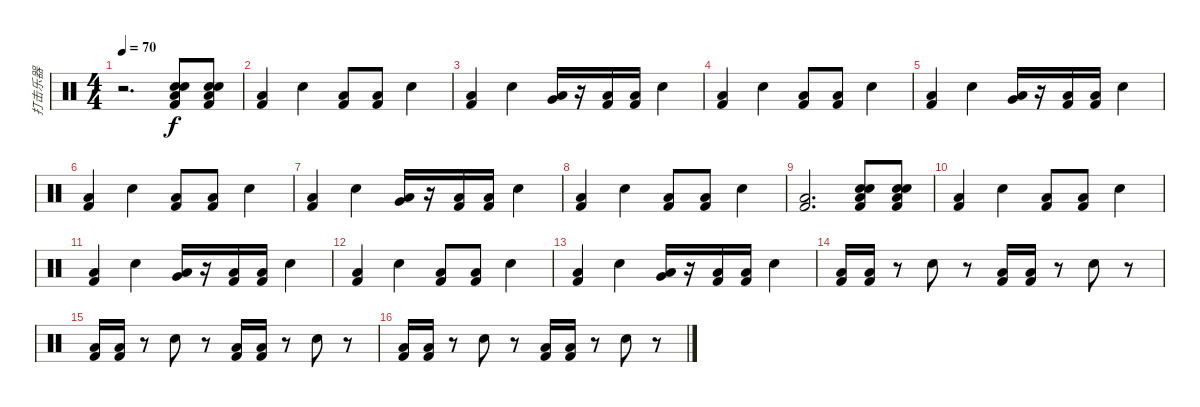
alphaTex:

\track ("打击乐器" "打击乐器") {instrument percussion bank 5}
\staff {score}
\articulation defaults
\ts (4 4)
\tempo 70
\clef neutral
\ks c
r.2{d dy f} ("Electric Snare (hit)" "Snare (hit) 2" "Low Floor Tom (hit)" "Kick (hit) 2").8 ("Electric Snare (hit)" "Snare (hit) 2" "Low Floor Tom (hit)" "Kick (hit) 2").8 |
("Low Floor Tom (hit)" "Kick (hit) 2").4 "Electric Snare (hit)".4 ("Low Floor Tom (hit)" "Kick (hit) 2").8 ("Low Floor Tom (hit)" "Kick (hit) 2").8 "Electric Snare (hit)".4 |
("Low Floor Tom (hit)" "Kick (hit) 2").4 "Electric Snare (hit)".4 ("Low Floor Tom (hit)" "Very Low Tom (hit)").16 r.16 ("Low Floor Tom (hit)" "Kick (hit) 2").16 ("Low Floor Tom (hit)" "Kick (hit) 2").16 "Electric Snare (hit)".4 |
("Low Floor Tom (hit)" "Kick (hit) 2").4 "Electric Snare (hit)".4 ("Low Floor Tom (hit)" "Kick (hit) 2").8 ("Low Floor Tom (hit)" "Kick (hit) 2").8 "Electric Snare (hit)".4 |
("Low Floor Tom (hit)" "Kick (hit) 2").4 "Electric Snare (hit)".4 ("Low Floor Tom (hit)" "Very Low Tom (hit)").16 r.16 ("Low Floor Tom (hit)" "Kick (hit) 2").16 ("Low Floor Tom (hit)" "Kick (hit) 2").16 "Electric Snare (hit)".4 |
("Low Floor Tom (hit)" "Kick (hit) 2").4 "Electric Snare (hit)".4 ("Low Floor Tom (hit)" "Kick (hit) 2").8 ("Low Floor Tom (hit)" "Kick (hit) 2").8 "Electric Snare (hit)".4 |
("Low Floor Tom (hit)" "Kick (hit) 2").4 "Electric Snare (hit)".4 ("Low Floor Tom (hit)" "Very Low Tom (hit)").16 r.16 ("Low Floor Tom (hit)" "Kick (hit) 2").16 ("Low Floor Tom (hit)" "Kick (hit) 2").16 "Electric Snare (hit)".4 |
("Low Floor Tom (hit)" "Kick (hit) 2").4 "Electric Snare (hit)".4 ("Low Floor Tom (hit)" "Kick (hit) 2").8 ("Low Floor Tom (hit)" "Kick (hit) 2").8 "Electric Snare (hit)".4 |
("Low Floor Tom (hit)" "Kick (hit) 2").2{d} ("Electric Snare (hit)" "Snare (hit) 2" "Low Floor Tom (hit)" "Kick (hit) 2").8 ("Electric Snare (hit)" "Snare (hit) 2" "Low Floor Tom (hit)" "Kick (hit) 2").8 |
("Low Floor Tom (hit)" "Kick (hit) 2").4 "Electric Snare (hit)".4 ("Low Floor Tom (hit)" "Kick (hit) 2").8 ("Low Floor Tom (hit)" "Kick (hit) 2").8 "Electric Snare (hit)".4 |
("Low Floor Tom (hit)" "Kick (hit) 2").4 "Electric Snare (hit)".4 ("Low Floor Tom (hit)" "Very Low Tom (hit)").16 r.16 ("Low Floor Tom (hit)" "Kick (hit) 2").16 ("Low Floor Tom (hit)" "Kick (hit) 2").16 "Electric Snare (hit)".4 |
("Low Floor Tom (hit)" "Kick (hit) 2").4 "Electric Snare (hit)".4 ("Low Floor Tom (hit)" "Kick (hit) 2").8 ("Low Floor Tom (hit)" "Kick (hit) 2").8 "Electric Snare (hit)".4 |
("Low Floor Tom (hit)" "Kick (hit) 2").4 "Electric Snare (hit)".4 ("Low Floor Tom (hit)" "Very Low Tom (hit)").16 r.16 ("Low Floor Tom (hit)" "Kick (hit) 2").16 ("Low Floor Tom (hit)" "Kick (hit) 2").16 "Electric Snare (hit)".4 |
("Low Floor Tom (hit)" "Kick (hit) 2").16 ("Low Floor Tom (hit)" "Kick (hit) 2").16 r.8 "Electric Snare (hit)".8 r.8 ("Low Floor Tom (hit)" "Kick (hit) 2").16 ("Low Floor Tom (hit)" "Kick (hit) 2").16 r.8 "Electric Snare (hit)".8 r.8 |
("Low Floor Tom (hit)" "Kick (hit) 2").16 ("Low Floor Tom (hit)" "Kick (hit) 2").16 r.8 "Electric Snare (hit)".8 r.8 ("Low Floor Tom (hit)" "Kick (hit) 2").16 ("Low Floor Tom (hit)" "Kick (hit) 2").16 r.8 "Electric Snare (hit)".8 r.8 |
("Low Floor Tom (hit)" "Kick (hit) 2").16 ("Low Floor Tom (hit)" "Kick (hit) 2").16 r.8 "Electric Snare (hit)".8 r.8 ("Low Floor Tom (hit)" "Kick (hit) 2").16 ("Low Floor Tom (hit)" "Kick (hit) 2").16 r.8 "Electric Snare (hit)".8 r.8
